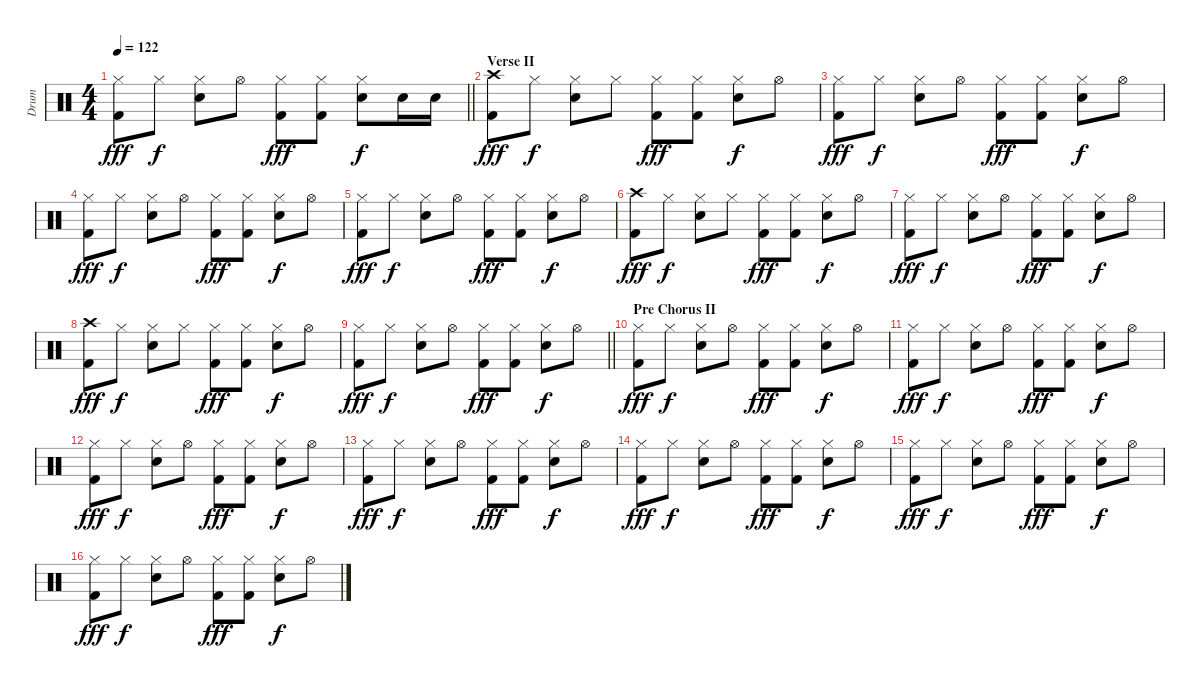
\track ("Drum" "Drum") {instrument percussion}
\staff {score}
\articulation defaults
\ts (4 4)
\tempo 122
\clef neutral
\barLineRight lightlight
\ks c
("Hi-Hat (closed)" "Kick (hit) 2").8{dy fff} "Hi-Hat (closed)".8{dy f} ("Hi-Hat (closed)" "Electric Snare (hit)").8 "Hi-Hat (open)".8 ("Hi-Hat (closed)" "Kick (hit) 2").8{dy fff} ("Hi-Hat (closed)" "Kick (hit) 2").8 ("Hi-Hat (closed)" "Electric Snare (hit)").8{dy f} "Electric Snare (hit)".16 "Electric Snare (hit)".16 |
\section ("" "Verse II")
("Crash high (hit)" "Kick (hit) 2").8{dy fff} "Hi-Hat (closed)".8{dy f} ("Hi-Hat (closed)" "Electric Snare (hit)").8 "Hi-Hat (closed)".8 ("Hi-Hat (closed)" "Kick (hit) 2").8{dy fff} ("Hi-Hat (closed)" "Kick (hit) 2").8 ("Hi-Hat (closed)" "Electric Snare (hit)").8{dy f} "Hi-Hat (open)".8 |
("Hi-Hat (closed)" "Kick (hit) 2").8{dy fff} "Hi-Hat (closed)".8{dy f} ("Hi-Hat (closed)" "Electric Snare (hit)").8 "Hi-Hat (open)".8 ("Hi-Hat (closed)" "Kick (hit) 2").8{dy fff} ("Hi-Hat (closed)" "Kick (hit) 2").8 ("Hi-Hat (closed)" "Electric Snare (hit)").8{dy f} "Hi-Hat (open)".8 |
("Hi-Hat (closed)" "Kick (hit) 2").8{dy fff} "Hi-Hat (closed)".8{dy f} ("Hi-Hat (closed)" "Electric Snare (hit)").8 "Hi-Hat (open)".8 ("Hi-Hat (closed)" "Kick (hit) 2").8{dy fff} ("Hi-Hat (closed)" "Kick (hit) 2").8 ("Hi-Hat (closed)" "Electric Snare (hit)").8{dy f} "Hi-Hat (open)".8 |
("Hi-Hat (closed)" "Kick (hit) 2").8{dy fff} "Hi-Hat (closed)".8{dy f} ("Hi-Hat (closed)" "Electric Snare (hit)").8 "Hi-Hat (open)".8 ("Hi-Hat (closed)" "Kick (hit) 2").8{dy fff} ("Hi-Hat (closed)" "Kick (hit) 2").8 ("Hi-Hat (closed)" "Electric Snare (hit)").8{dy f} "Hi-Hat (open)".8 |
("Crash high (hit)" "Kick (hit) 2").8{dy fff} "Hi-Hat (closed)".8{dy f} ("Hi-Hat (closed)" "Electric Snare (hit)").8 "Hi-Hat (closed)".8 ("Hi-Hat (closed)" "Kick (hit) 2").8{dy fff} ("Hi-Hat (closed)" "Kick (hit) 2").8 ("Hi-Hat (closed)" "Electric Snare (hit)").8{dy f} "Hi-Hat (open)".8 |
("Hi-Hat (closed)" "Kick (hit) 2").8{dy fff} "Hi-Hat (closed)".8{dy f} ("Hi-Hat (closed)" "Electric Snare (hit)").8 "Hi-Hat (open)".8 ("Hi-Hat (closed)" "Kick (hit) 2").8{dy fff} ("Hi-Hat (closed)" "Kick (hit) 2").8 ("Hi-Hat (closed)" "Electric Snare (hit)").8{dy f} "Hi-Hat (open)".8 |
("Crash high (hit)" "Kick (hit) 2").8{dy fff} "Hi-Hat (closed)".8{dy f} ("Hi-Hat (closed)" "Electric Snare (hit)").8 "Hi-Hat (closed)".8 ("Hi-Hat (closed)" "Kick (hit) 2").8{dy fff} ("Hi-Hat (closed)" "Kick (hit) 2").8 ("Hi-Hat (closed)" "Electric Snare (hit)").8{dy f} "Hi-Hat (open)".8 |
\barLineRight lightlight
("Hi-Hat (closed)" "Kick (hit) 2").8{dy fff} "Hi-Hat (closed)".8{dy f} ("Hi-Hat (closed)" "Electric Snare (hit)").8 "Hi-Hat (open)".8 ("Hi-Hat (closed)" "Kick (hit) 2").8{dy fff} ("Hi-Hat (closed)" "Kick (hit) 2").8 ("Hi-Hat (closed)" "Electric Snare (hit)").8{dy f} "Hi-Hat (open)".8 |
\section ("" "Pre Chorus II")
("Hi-Hat (closed)" "Kick (hit) 2").8{dy fff} "Hi-Hat (closed)".8{dy f} ("Hi-Hat (closed)" "Electric Snare (hit)").8 "Hi-Hat (open)".8 ("Hi-Hat (closed)" "Kick (hit) 2").8{dy fff} ("Hi-Hat (closed)" "Kick (hit) 2").8 ("Hi-Hat (closed)" "Electric Snare (hit)").8{dy f} "Hi-Hat (open)".8 |
("Hi-Hat (closed)" "Kick (hit) 2").8{dy fff} "Hi-Hat (closed)".8{dy f} ("Hi-Hat (closed)" "Electric Snare (hit)").8 "Hi-Hat (open)".8 ("Hi-Hat (closed)" "Kick (hit) 2").8{dy fff} ("Hi-Hat (closed)" "Kick (hit) 2").8 ("Hi-Hat (closed)" "Electric Snare (hit)").8{dy f} "Hi-Hat (open)".8 |
("Hi-Hat (closed)" "Kick (hit) 2").8{dy fff} "Hi-Hat (closed)".8{dy f} ("Hi-Hat (closed)" "Electric Snare (hit)").8 "Hi-Hat (open)".8 ("Hi-Hat (closed)" "Kick (hit) 2").8{dy fff} ("Hi-Hat (closed)" "Kick (hit) 2").8 ("Hi-Hat (closed)" "Electric Snare (hit)").8{dy f} "Hi-Hat (open)".8 |
("Hi-Hat (closed)" "Kick (hit) 2").8{dy fff} "Hi-Hat (closed)".8{dy f} ("Hi-Hat (closed)" "Electric Snare (hit)").8 "Hi-Hat (open)".8 ("Hi-Hat (closed)" "Kick (hit) 2").8{dy fff} ("Hi-Hat (closed)" "Kick (hit) 2").8 ("Hi-Hat (closed)" "Electric Snare (hit)").8{dy f} "Hi-Hat (open)".8 |
("Hi-Hat (closed)" "Kick (hit) 2").8{dy fff} "Hi-Hat (closed)".8{dy f} ("Hi-Hat (closed)" "Electric Snare (hit)").8 "Hi-Hat (open)".8 ("Hi-Hat (closed)" "Kick (hit) 2").8{dy fff} ("Hi-Hat (closed)" "Kick (hit) 2").8 ("Hi-Hat (closed)" "Electric Snare (hit)").8{dy f} "Hi-Hat (open)".8 |
("Hi-Hat (closed)" "Kick (hit) 2").8{dy fff} "Hi-Hat (closed)".8{dy f} ("Hi-Hat (closed)" "Electric Snare (hit)").8 "Hi-Hat (open)".8 ("Hi-Hat (closed)" "Kick (hit) 2").8{dy fff} ("Hi-Hat (closed)" "Kick (hit) 2").8 ("Hi-Hat (closed)" "Electric Snare (hit)").8{dy f} "Hi-Hat (open)".8 |
("Hi-Hat (closed)" "Kick (hit) 2").8{dy fff} "Hi-Hat (closed)".8{dy f} ("Hi-Hat (closed)" "Electric Snare (hit)").8 "Hi-Hat (open)".8 ("Hi-Hat (closed)" "Kick (hit) 2").8{dy fff} ("Hi-Hat (closed)" "Kick (hit) 2").8 ("Hi-Hat (closed)" "Electric Snare (hit)").8{dy f} "Hi-Hat (open)".8
